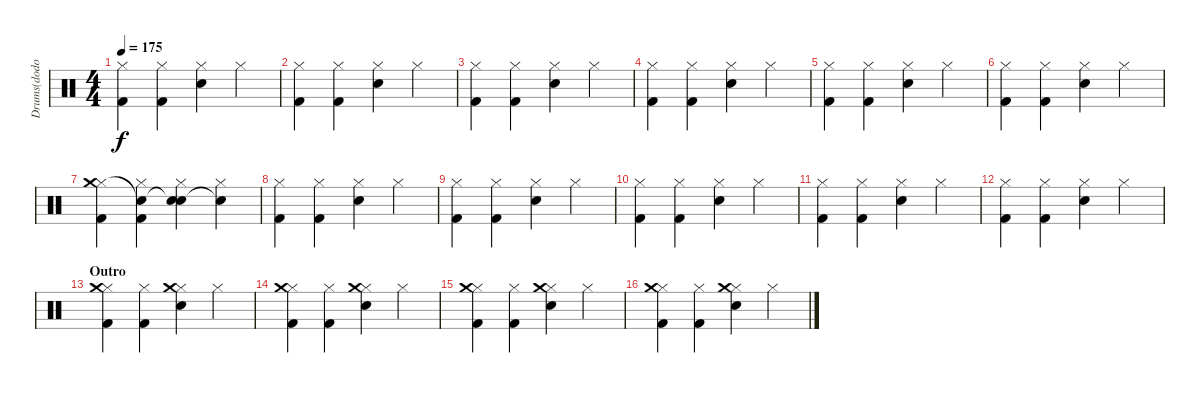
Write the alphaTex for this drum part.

\track ("Drums(dodo)" "Drums(dodo") {instrument percussion}
\staff {score}
\articulation defaults
\ts (4 4)
\tempo 175
\clef neutral
\ks c
("Hi-Hat (closed)" "Kick (hit) 2").4{dy f} ("Hi-Hat (closed)" "Kick (hit) 2").4 ("Hi-Hat (closed)" "Snare (hit) 2").4 "Hi-Hat (closed)".4 |
("Hi-Hat (closed)" "Kick (hit) 2").4 ("Hi-Hat (closed)" "Kick (hit) 2").4 ("Hi-Hat (closed)" "Snare (hit) 2").4 "Hi-Hat (closed)".4 |
("Hi-Hat (closed)" "Kick (hit) 2").4 ("Hi-Hat (closed)" "Kick (hit) 2").4 ("Hi-Hat (closed)" "Snare (hit) 2").4 "Hi-Hat (closed)".4 |
("Hi-Hat (closed)" "Kick (hit) 2").4 ("Hi-Hat (closed)" "Kick (hit) 2").4 ("Hi-Hat (closed)" "Snare (hit) 2").4 "Hi-Hat (closed)".4 |
("Hi-Hat (closed)" "Kick (hit) 2").4 ("Hi-Hat (closed)" "Kick (hit) 2").4 ("Hi-Hat (closed)" "Snare (hit) 2").4 "Hi-Hat (closed)".4 |
("Hi-Hat (closed)" "Kick (hit) 2").4 ("Hi-Hat (closed)" "Kick (hit) 2").4 ("Hi-Hat (closed)" "Snare (hit) 2").4 "Hi-Hat (closed)".4 |
("Hi-Hat (closed)" "Crash medium (hit)" "Kick (hit) 2").4 ("Hi-Hat (closed)" "Snare (hit) 2"{t} "Kick (hit) 2").4 ("Hi-Hat (closed)" "Snare (hit)"{t} "Snare (hit) 2").4 ("Hi-Hat (closed)" "Snare (hit)"{t}).4 |
("Hi-Hat (closed)" "Kick (hit) 2").4 ("Hi-Hat (closed)" "Kick (hit) 2").4 ("Hi-Hat (closed)" "Snare (hit) 2").4 "Hi-Hat (closed)".4 |
("Hi-Hat (closed)" "Kick (hit) 2").4 ("Hi-Hat (closed)" "Kick (hit) 2").4 ("Hi-Hat (closed)" "Snare (hit) 2").4 "Hi-Hat (closed)".4 |
("Hi-Hat (closed)" "Kick (hit) 2").4 ("Hi-Hat (closed)" "Kick (hit) 2").4 ("Hi-Hat (closed)" "Snare (hit) 2").4 "Hi-Hat (closed)".4 |
("Hi-Hat (closed)" "Kick (hit) 2").4 ("Hi-Hat (closed)" "Kick (hit) 2").4 ("Hi-Hat (closed)" "Snare (hit) 2").4 "Hi-Hat (closed)".4 |
("Hi-Hat (closed)" "Kick (hit) 2").4 ("Hi-Hat (closed)" "Kick (hit) 2").4 ("Hi-Hat (closed)" "Snare (hit) 2").4 "Hi-Hat (closed)".4 |
\section ("" "Outro")
("Hi-Hat (closed)" "Crash medium (hit)" "Kick (hit) 2").4 ("Hi-Hat (closed)" "Kick (hit) 2").4 ("Hi-Hat (closed)" "Crash medium (hit)" "Snare (hit) 2").4 "Hi-Hat (closed)".4 |
("Hi-Hat (closed)" "Crash medium (hit)" "Kick (hit) 2").4 ("Hi-Hat (closed)" "Kick (hit) 2").4 ("Hi-Hat (closed)" "Crash medium (hit)" "Snare (hit) 2").4 "Hi-Hat (closed)".4 |
("Hi-Hat (closed)" "Crash medium (hit)" "Kick (hit) 2").4 ("Hi-Hat (closed)" "Kick (hit) 2").4 ("Hi-Hat (closed)" "Crash medium (hit)" "Snare (hit) 2").4 "Hi-Hat (closed)".4 |
("Hi-Hat (closed)" "Crash medium (hit)" "Kick (hit) 2").4 ("Hi-Hat (closed)" "Kick (hit) 2").4 ("Hi-Hat (closed)" "Crash medium (hit)" "Snare (hit) 2").4 "Hi-Hat (closed)".4
